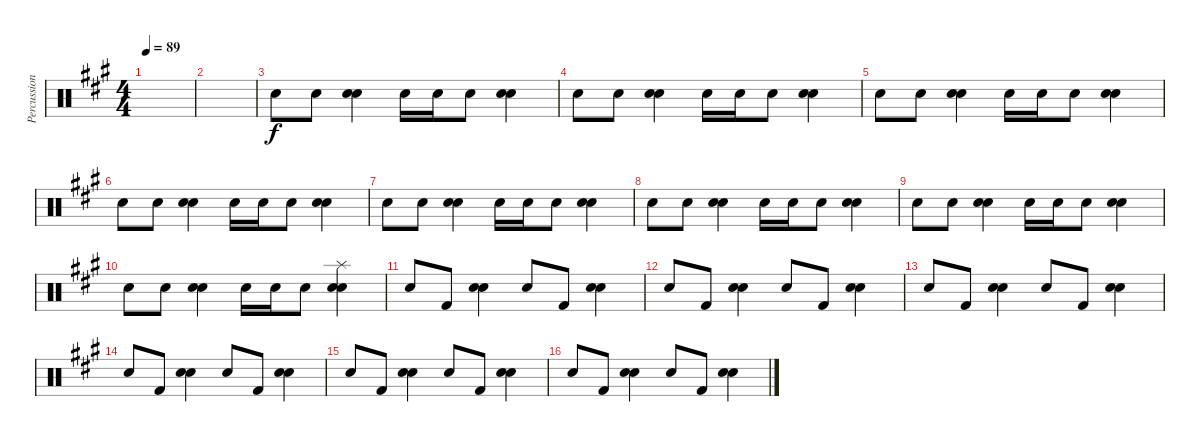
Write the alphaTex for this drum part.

\track ("Percussions" "Percussion") {instrument percussion}
\staff {score}
\articulation defaults
\ts (4 4)
\tempo 89
\clef neutral
\ks a
|
|
"Electric Snare (hit)".8 "Electric Snare (hit)".8 ("Snare (hit) 2" "Electric Snare (hit)").4 "Electric Snare (hit)".16 "Electric Snare (hit)".16 "Electric Snare (hit)".8 ("Snare (hit) 2" "Electric Snare (hit)").4 |
"Electric Snare (hit)".8 "Electric Snare (hit)".8 ("Snare (hit) 2" "Electric Snare (hit)").4 "Electric Snare (hit)".16 "Electric Snare (hit)".16 "Electric Snare (hit)".8 ("Snare (hit) 2" "Electric Snare (hit)").4 |
"Electric Snare (hit)".8 "Electric Snare (hit)".8 ("Snare (hit) 2" "Electric Snare (hit)").4 "Electric Snare (hit)".16 "Electric Snare (hit)".16 "Electric Snare (hit)".8 ("Snare (hit) 2" "Electric Snare (hit)").4 |
"Electric Snare (hit)".8 "Electric Snare (hit)".8 ("Snare (hit) 2" "Electric Snare (hit)").4 "Electric Snare (hit)".16 "Electric Snare (hit)".16 "Electric Snare (hit)".8 ("Snare (hit) 2" "Electric Snare (hit)").4 |
"Electric Snare (hit)".8 "Electric Snare (hit)".8 ("Snare (hit) 2" "Electric Snare (hit)").4 "Electric Snare (hit)".16 "Electric Snare (hit)".16 "Electric Snare (hit)".8 ("Snare (hit) 2" "Electric Snare (hit)").4 |
"Electric Snare (hit)".8 "Electric Snare (hit)".8 ("Snare (hit) 2" "Electric Snare (hit)").4 "Electric Snare (hit)".16 "Electric Snare (hit)".16 "Electric Snare (hit)".8 ("Snare (hit) 2" "Electric Snare (hit)").4 |
"Electric Snare (hit)".8 "Electric Snare (hit)".8 ("Snare (hit) 2" "Electric Snare (hit)").4 "Electric Snare (hit)".16 "Electric Snare (hit)".16 "Electric Snare (hit)".8 ("Snare (hit) 2" "Electric Snare (hit)").4 |
"Electric Snare (hit)".8 "Electric Snare (hit)".8 ("Snare (hit) 2" "Electric Snare (hit)").4 "Electric Snare (hit)".16 "Electric Snare (hit)".16 "Electric Snare (hit)".8 ("Snare (hit) 2" "Electric Snare (hit)" "Splash (hit)").4 |
"Electric Snare (hit)".8 "Kick (hit) 2".8 ("Snare (hit) 2" "Electric Snare (hit)").4 "Electric Snare (hit)".8 "Kick (hit) 2".8 ("Snare (hit) 2" "Electric Snare (hit)").4 |
"Electric Snare (hit)".8 "Kick (hit) 2".8 ("Snare (hit) 2" "Electric Snare (hit)").4 "Electric Snare (hit)".8 "Kick (hit) 2".8 ("Snare (hit) 2" "Electric Snare (hit)").4 |
"Electric Snare (hit)".8 "Kick (hit) 2".8 ("Snare (hit) 2" "Electric Snare (hit)").4 "Electric Snare (hit)".8 "Kick (hit) 2".8 ("Snare (hit) 2" "Electric Snare (hit)").4 |
"Electric Snare (hit)".8 "Kick (hit) 2".8 ("Snare (hit) 2" "Electric Snare (hit)").4 "Electric Snare (hit)".8 "Kick (hit) 2".8 ("Snare (hit) 2" "Electric Snare (hit)").4 |
"Electric Snare (hit)".8 "Kick (hit) 2".8 ("Snare (hit) 2" "Electric Snare (hit)").4 "Electric Snare (hit)".8 "Kick (hit) 2".8 ("Snare (hit) 2" "Electric Snare (hit)").4 |
"Electric Snare (hit)".8 "Kick (hit) 2".8 ("Snare (hit) 2" "Electric Snare (hit)").4 "Electric Snare (hit)".8 "Kick (hit) 2".8 ("Snare (hit) 2" "Electric Snare (hit)").4
